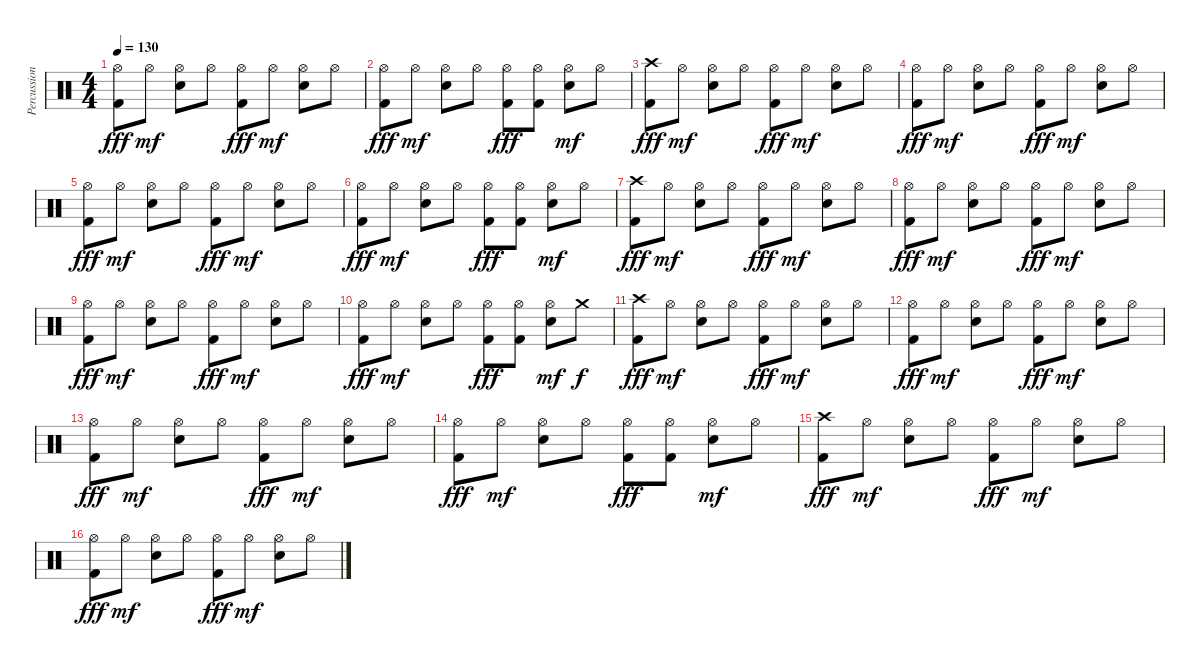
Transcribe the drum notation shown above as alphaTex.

\track ("Percussion" "Percussion") {instrument percussion}
\staff {score}
\articulation defaults
\ts (4 4)
\tempo 130
\clef neutral
\ks c
("Hi-Hat (open)" "Kick (hit) 2").8{dy fff} "Hi-Hat (open)".8{dy mf} ("Hi-Hat (open)" "Electric Snare (hit)").8 "Hi-Hat (open)".8 ("Hi-Hat (open)" "Kick (hit) 2").8{dy fff} "Hi-Hat (open)".8{dy mf} ("Hi-Hat (open)" "Electric Snare (hit)").8 "Hi-Hat (open)".8 |
("Hi-Hat (open)" "Kick (hit) 2").8{dy fff} "Hi-Hat (open)".8{dy mf} ("Hi-Hat (open)" "Electric Snare (hit)").8 "Hi-Hat (open)".8 ("Hi-Hat (open)" "Kick (hit) 2").8{dy fff} ("Hi-Hat (open)" "Kick (hit) 2").8 ("Hi-Hat (open)" "Electric Snare (hit)").8{dy mf} "Hi-Hat (open)".8 |
("Crash high (hit)" "Kick (hit) 2").8{dy fff} "Hi-Hat (open)".8{dy mf} ("Hi-Hat (open)" "Electric Snare (hit)").8 "Hi-Hat (open)".8 ("Hi-Hat (open)" "Kick (hit) 2").8{dy fff} "Hi-Hat (open)".8{dy mf} ("Hi-Hat (open)" "Electric Snare (hit)").8 "Hi-Hat (open)".8 |
("Hi-Hat (open)" "Kick (hit) 2").8{dy fff} "Hi-Hat (open)".8{dy mf} ("Hi-Hat (open)" "Electric Snare (hit)").8 "Hi-Hat (open)".8 ("Hi-Hat (open)" "Kick (hit) 2").8{dy fff} "Hi-Hat (open)".8{dy mf} ("Hi-Hat (open)" "Electric Snare (hit)").8 "Hi-Hat (open)".8 |
("Hi-Hat (open)" "Kick (hit) 2").8{dy fff} "Hi-Hat (open)".8{dy mf} ("Hi-Hat (open)" "Electric Snare (hit)").8 "Hi-Hat (open)".8 ("Hi-Hat (open)" "Kick (hit) 2").8{dy fff} "Hi-Hat (open)".8{dy mf} ("Hi-Hat (open)" "Electric Snare (hit)").8 "Hi-Hat (open)".8 |
("Hi-Hat (open)" "Kick (hit) 2").8{dy fff} "Hi-Hat (open)".8{dy mf} ("Hi-Hat (open)" "Electric Snare (hit)").8 "Hi-Hat (open)".8 ("Hi-Hat (open)" "Kick (hit) 2").8{dy fff} ("Hi-Hat (open)" "Kick (hit) 2").8 ("Hi-Hat (open)" "Electric Snare (hit)").8{dy mf} "Hi-Hat (open)".8 |
("Crash high (hit)" "Kick (hit) 2").8{dy fff} "Hi-Hat (open)".8{dy mf} ("Hi-Hat (open)" "Electric Snare (hit)").8 "Hi-Hat (open)".8 ("Hi-Hat (open)" "Kick (hit) 2").8{dy fff} "Hi-Hat (open)".8{dy mf} ("Hi-Hat (open)" "Electric Snare (hit)").8 "Hi-Hat (open)".8 |
("Hi-Hat (open)" "Kick (hit) 2").8{dy fff} "Hi-Hat (open)".8{dy mf} ("Hi-Hat (open)" "Electric Snare (hit)").8 "Hi-Hat (open)".8 ("Hi-Hat (open)" "Kick (hit) 2").8{dy fff} "Hi-Hat (open)".8{dy mf} ("Hi-Hat (open)" "Electric Snare (hit)").8 "Hi-Hat (open)".8 |
("Hi-Hat (open)" "Kick (hit) 2").8{dy fff} "Hi-Hat (open)".8{dy mf} ("Hi-Hat (open)" "Electric Snare (hit)").8 "Hi-Hat (open)".8 ("Hi-Hat (open)" "Kick (hit) 2").8{dy fff} "Hi-Hat (open)".8{dy mf} ("Hi-Hat (open)" "Electric Snare (hit)").8 "Hi-Hat (open)".8 |
("Hi-Hat (open)" "Kick (hit) 2").8{dy fff} "Hi-Hat (open)".8{dy mf} ("Hi-Hat (open)" "Electric Snare (hit)").8 "Hi-Hat (open)".8 ("Hi-Hat (open)" "Kick (hit) 2").8{dy fff} ("Hi-Hat (open)" "Kick (hit) 2").8 ("Hi-Hat (open)" "Electric Snare (hit)").8{dy mf} "Crash medium (hit)".8{dy f} |
("Crash high (hit)" "Kick (hit) 2").8{dy fff} "Hi-Hat (open)".8{dy mf} ("Hi-Hat (open)" "Electric Snare (hit)").8 "Hi-Hat (open)".8 ("Hi-Hat (open)" "Kick (hit) 2").8{dy fff} "Hi-Hat (open)".8{dy mf} ("Hi-Hat (open)" "Electric Snare (hit)").8 "Hi-Hat (open)".8 |
("Hi-Hat (open)" "Kick (hit) 2").8{dy fff} "Hi-Hat (open)".8{dy mf} ("Hi-Hat (open)" "Electric Snare (hit)").8 "Hi-Hat (open)".8 ("Hi-Hat (open)" "Kick (hit) 2").8{dy fff} "Hi-Hat (open)".8{dy mf} ("Hi-Hat (open)" "Electric Snare (hit)").8 "Hi-Hat (open)".8 |
("Hi-Hat (open)" "Kick (hit) 2").8{dy fff} "Hi-Hat (open)".8{dy mf} ("Hi-Hat (open)" "Electric Snare (hit)").8 "Hi-Hat (open)".8 ("Hi-Hat (open)" "Kick (hit) 2").8{dy fff} "Hi-Hat (open)".8{dy mf} ("Hi-Hat (open)" "Electric Snare (hit)").8 "Hi-Hat (open)".8 |
("Hi-Hat (open)" "Kick (hit) 2").8{dy fff} "Hi-Hat (open)".8{dy mf} ("Hi-Hat (open)" "Electric Snare (hit)").8 "Hi-Hat (open)".8 ("Hi-Hat (open)" "Kick (hit) 2").8{dy fff} ("Hi-Hat (open)" "Kick (hit) 2").8 ("Hi-Hat (open)" "Electric Snare (hit)").8{dy mf} "Hi-Hat (open)".8 |
("Crash high (hit)" "Kick (hit) 2").8{dy fff} "Hi-Hat (open)".8{dy mf} ("Hi-Hat (open)" "Electric Snare (hit)").8 "Hi-Hat (open)".8 ("Hi-Hat (open)" "Kick (hit) 2").8{dy fff} "Hi-Hat (open)".8{dy mf} ("Hi-Hat (open)" "Electric Snare (hit)").8 "Hi-Hat (open)".8 |
("Hi-Hat (open)" "Kick (hit) 2").8{dy fff} "Hi-Hat (open)".8{dy mf} ("Hi-Hat (open)" "Electric Snare (hit)").8 "Hi-Hat (open)".8 ("Hi-Hat (open)" "Kick (hit) 2").8{dy fff} "Hi-Hat (open)".8{dy mf} ("Hi-Hat (open)" "Electric Snare (hit)").8 "Hi-Hat (open)".8
